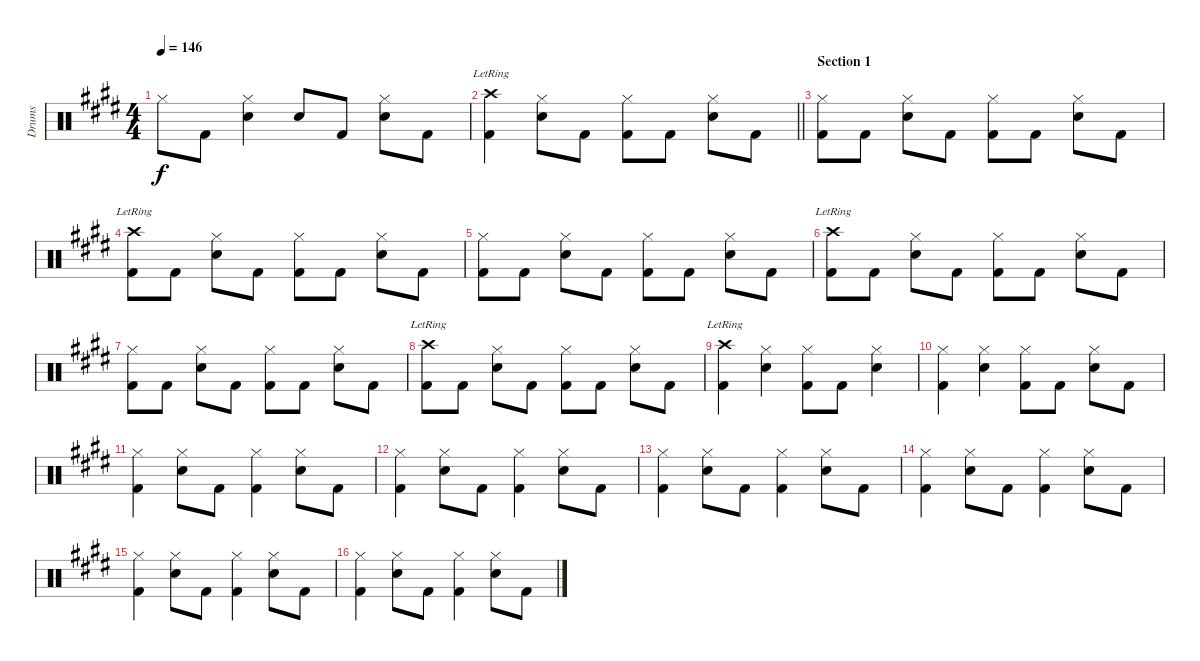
\track ("Drums" "Drums") {instrument percussion}
\staff {score}
\articulation defaults
\ts (4 4)
\tempo 146
\clef neutral
\ks e "Hi-Hat (closed)".8{dy f} "Kick (hit) 2".8
("Snare (hit) 2" "Hi-Hat (closed)").4 "Snare (hit) 2".8 "Kick (hit) 2".8 ("Snare (hit) 2" "Hi-Hat (closed)").8 "Kick (hit) 2".8 |
\barLineRight lightlight
("Kick (hit) 2" "Crash high (hit)"{lr}).4 ("Snare (hit) 2" "Hi-Hat (closed)").8 "Kick (hit) 2".8 ("Kick (hit) 2" "Hi-Hat (closed)").8 "Kick (hit) 2".8 ("Snare (hit) 2" "Hi-Hat (closed)").8 "Kick (hit) 2".8 |
\section ("" "Section 1")
("Kick (hit) 2" "Hi-Hat (closed)").8 "Kick (hit) 2".8 ("Snare (hit) 2" "Hi-Hat (closed)").8 "Kick (hit) 2".8 ("Kick (hit) 2" "Hi-Hat (closed)").8 "Kick (hit) 2".8 ("Snare (hit) 2" "Hi-Hat (closed)").8 "Kick (hit) 2".8 |
("Kick (hit) 2" "Crash high (hit)"{lr}).8 "Kick (hit) 2".8 ("Snare (hit) 2" "Hi-Hat (closed)").8 "Kick (hit) 2".8 ("Kick (hit) 2" "Hi-Hat (closed)").8 "Kick (hit) 2".8 ("Snare (hit) 2" "Hi-Hat (closed)").8 "Kick (hit) 2".8 |
("Kick (hit) 2" "Hi-Hat (closed)").8 "Kick (hit) 2".8 ("Snare (hit) 2" "Hi-Hat (closed)").8 "Kick (hit) 2".8 ("Kick (hit) 2" "Hi-Hat (closed)").8 "Kick (hit) 2".8 ("Snare (hit) 2" "Hi-Hat (closed)").8 "Kick (hit) 2".8 |
("Kick (hit) 2" "Crash high (hit)"{lr}).8 "Kick (hit) 2".8 ("Snare (hit) 2" "Hi-Hat (closed)").8 "Kick (hit) 2".8 ("Kick (hit) 2" "Hi-Hat (closed)").8 "Kick (hit) 2".8 ("Snare (hit) 2" "Hi-Hat (closed)").8 "Kick (hit) 2".8 |
("Kick (hit) 2" "Hi-Hat (closed)").8 "Kick (hit) 2".8 ("Snare (hit) 2" "Hi-Hat (closed)").8 "Kick (hit) 2".8 ("Kick (hit) 2" "Hi-Hat (closed)").8 "Kick (hit) 2".8 ("Snare (hit) 2" "Hi-Hat (closed)").8 "Kick (hit) 2".8 |
("Kick (hit) 2" "Crash high (hit)"{lr}).8 "Kick (hit) 2".8 ("Snare (hit) 2" "Hi-Hat (closed)").8 "Kick (hit) 2".8 ("Kick (hit) 2" "Hi-Hat (closed)").8 "Kick (hit) 2".8 ("Snare (hit) 2" "Hi-Hat (closed)").8 "Kick (hit) 2".8 |
("Kick (hit) 2" "Crash high (hit)"{lr}).4 ("Snare (hit) 2" "Hi-Hat (closed)").4 ("Kick (hit) 2" "Hi-Hat (closed)").8 "Kick (hit) 2".8 ("Snare (hit) 2" "Hi-Hat (closed)").4 |
("Kick (hit) 2" "Hi-Hat (closed)").4 ("Snare (hit) 2" "Hi-Hat (closed)").4 ("Kick (hit) 2" "Hi-Hat (closed)").8 "Kick (hit) 2".8 ("Snare (hit) 2" "Hi-Hat (closed)").8 "Kick (hit) 2".8 |
("Kick (hit) 2" "Hi-Hat (closed)").4 ("Snare (hit) 2" "Hi-Hat (closed)").8 "Kick (hit) 2".8 ("Kick (hit) 2" "Hi-Hat (closed)").4 ("Snare (hit) 2" "Hi-Hat (closed)").8 "Kick (hit) 2".8 |
("Kick (hit) 2" "Hi-Hat (closed)").4 ("Snare (hit) 2" "Hi-Hat (closed)").8 "Kick (hit) 2".8 ("Kick (hit) 2" "Hi-Hat (closed)").4 ("Snare (hit) 2" "Hi-Hat (closed)").8 "Kick (hit) 2".8 |
("Kick (hit) 2" "Hi-Hat (closed)").4 ("Snare (hit) 2" "Hi-Hat (closed)").8 "Kick (hit) 2".8 ("Kick (hit) 2" "Hi-Hat (closed)").4 ("Snare (hit) 2" "Hi-Hat (closed)").8 "Kick (hit) 2".8 |
("Kick (hit) 2" "Hi-Hat (closed)").4 ("Snare (hit) 2" "Hi-Hat (closed)").8 "Kick (hit) 2".8 ("Kick (hit) 2" "Hi-Hat (closed)").4 ("Snare (hit) 2" "Hi-Hat (closed)").8 "Kick (hit) 2".8 |
("Kick (hit) 2" "Hi-Hat (closed)").4 ("Snare (hit) 2" "Hi-Hat (closed)").8 "Kick (hit) 2".8 ("Kick (hit) 2" "Hi-Hat (closed)").4 ("Snare (hit) 2" "Hi-Hat (closed)").8 "Kick (hit) 2".8 |
("Kick (hit) 2" "Hi-Hat (closed)").4 ("Snare (hit) 2" "Hi-Hat (closed)").8 "Kick (hit) 2".8 ("Kick (hit) 2" "Hi-Hat (closed)").4 ("Snare (hit) 2" "Hi-Hat (closed)").8 "Kick (hit) 2".8
